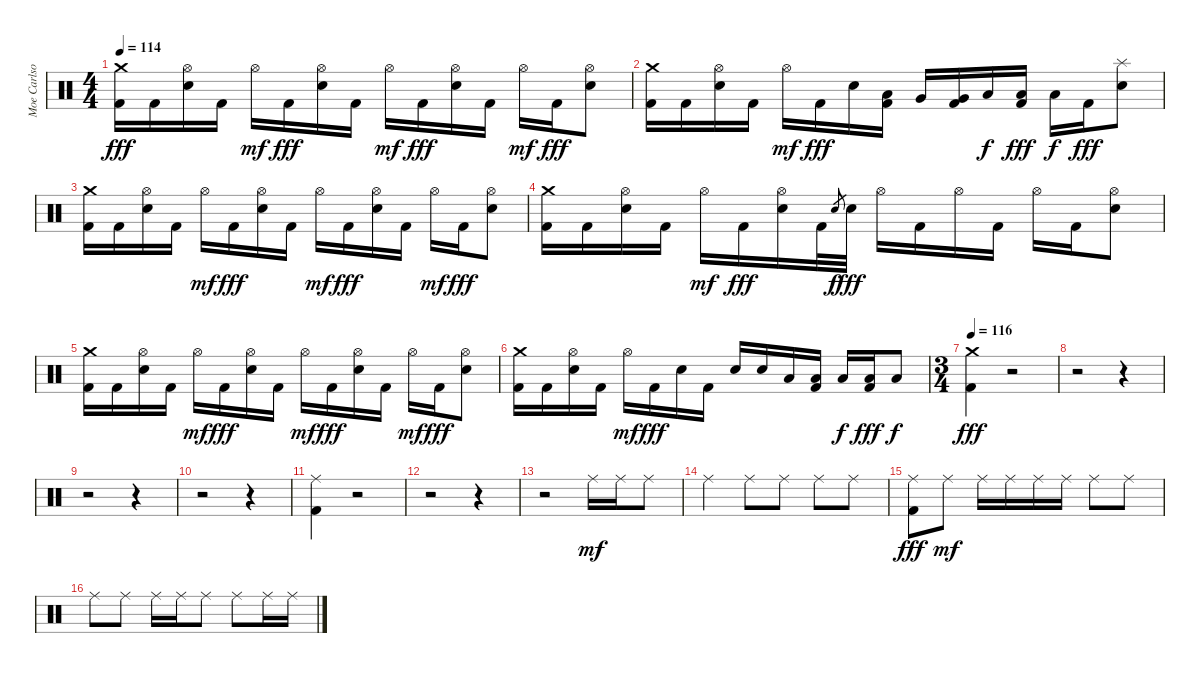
\track ("Moe Carlson" "Moe Carlso") {instrument percussion}
\staff {score}
\articulation defaults
\ts (4 4)
\tempo 114
\clef neutral
\ks c
("Crash medium (hit)" "Kick (hit) 2").16{dy fff} "Kick (hit) 2".16 ("Hi-Hat (open)" "Electric Snare (hit)").16 "Kick (hit) 2".16 "Hi-Hat (open)".16{dy mf} "Kick (hit) 2".16{dy fff} ("Hi-Hat (open)" "Electric Snare (hit)").16 "Kick (hit) 2".16 "Hi-Hat (open)".16{dy mf} "Kick (hit) 2".16{dy fff} ("Hi-Hat (open)" "Electric Snare (hit)").16 "Kick (hit) 2".16 "Hi-Hat (open)".16{dy mf} "Kick (hit) 2".16{dy fff} ("Hi-Hat (open)" "Electric Snare (hit)").8 |
("Crash medium (hit)" "Kick (hit) 2").16 "Kick (hit) 2".16 ("Hi-Hat (open)" "Electric Snare (hit)").16 "Kick (hit) 2".16 "Hi-Hat (open)".16{dy mf} "Kick (hit) 2".16{dy fff} "Electric Snare (hit)".16 ("Low Tom (hit)" "Kick (hit) 2").16 "Very Low Tom (hit)".16 ("Very Low Tom (hit)" "Kick (hit) 2").16 "Low Floor Tom (hit)".16{dy f} ("Low Floor Tom (hit)" "Kick (hit) 2").16{dy fff} "Low Floor Tom (hit)".16{dy f} "Kick (hit) 2".16{dy fff} ("Splash (hit)" "Electric Snare (hit)").8 |
("Crash medium (hit)" "Kick (hit) 2").16 "Kick (hit) 2".16 ("Hi-Hat (open)" "Electric Snare (hit)").16 "Kick (hit) 2".16 "Hi-Hat (open)".16{dy mf} "Kick (hit) 2".16{dy fff} ("Hi-Hat (open)" "Electric Snare (hit)").16 "Kick (hit) 2".16 "Hi-Hat (open)".16{dy mf} "Kick (hit) 2".16{dy fff} ("Hi-Hat (open)" "Electric Snare (hit)").16 "Kick (hit) 2".16 "Hi-Hat (open)".16{dy mf} "Kick (hit) 2".16{dy fff} ("Hi-Hat (open)" "Electric Snare (hit)").8 |
("Crash medium (hit)" "Kick (hit) 2").16 "Kick (hit) 2".16 ("Hi-Hat (open)" "Electric Snare (hit)").16 "Kick (hit) 2".16 "Hi-Hat (open)".16{dy mf} "Kick (hit) 2".16{dy fff} ("Hi-Hat (open)" "Electric Snare (hit)").16 "Kick (hit) 2".32 "Electric Snare (hit)".8{gr dy f} "Electric Snare (hit)".32{dy fff} "Hi-Hat (open)".16 "Kick (hit) 2".16 "Hi-Hat (open)".16 "Kick (hit) 2".16 "Hi-Hat (open)".16 "Kick (hit) 2".16 ("Hi-Hat (open)" "Electric Snare (hit)").8 |
("Crash medium (hit)" "Kick (hit) 2").16 "Kick (hit) 2".16 ("Hi-Hat (open)" "Electric Snare (hit)").16 "Kick (hit) 2".16 "Hi-Hat (open)".16{dy mf} "Kick (hit) 2".16{dy fff} ("Hi-Hat (open)" "Electric Snare (hit)").16 "Kick (hit) 2".16 "Hi-Hat (open)".16{dy mf} "Kick (hit) 2".16{dy fff} ("Hi-Hat (open)" "Electric Snare (hit)").16 "Kick (hit) 2".16 "Hi-Hat (open)".16{dy mf} "Kick (hit) 2".16{dy fff} ("Hi-Hat (open)" "Electric Snare (hit)").8 |
("Crash medium (hit)" "Kick (hit) 2").16 "Kick (hit) 2".16 ("Hi-Hat (open)" "Electric Snare (hit)").16 "Kick (hit) 2".16 "Hi-Hat (open)".16{dy mf} "Kick (hit) 2".16{dy fff} "Electric Snare (hit)".16 "Kick (hit) 2".16 "Electric Snare (hit)".16 "Electric Snare (hit)".16 "Low Tom (hit)".16 ("Low Tom (hit)" "Kick (hit) 2").16 "Low Floor Tom (hit)".16{dy f} ("Low Floor Tom (hit)" "Kick (hit) 2").16{dy fff} "Low Floor Tom (hit)".8{dy f} |
\ts (3 4)
\tempo 116
("Crash medium (hit)" "Kick (hit) 2").4{dy fff} r.2 |
r.2 r.4 |
r.2 r.4 |
r.2 r.4 |
("Ride (middle)" "Kick (hit) 2").4 r.2 |
r.2 r.4 |
r.2 "Ride (middle)".16{dy mf} "Ride (middle)".16 "Ride (middle)".8 |
"Ride (middle)".4 "Ride (middle)".8 "Ride (middle)".8 "Ride (middle)".8 "Ride (middle)".8 |
("Ride (middle)" "Kick (hit) 2").8{dy fff} "Ride (middle)".8{dy mf} "Ride (middle)".16 "Ride (middle)".16 "Ride (middle)".16 "Ride (middle)".16 "Ride (middle)".8 "Ride (middle)".8 |
"Ride (middle)".8 "Ride (middle)".8 "Ride (middle)".16 "Ride (middle)".16 "Ride (middle)".8 "Ride (middle)".8 "Ride (middle)".16 "Ride (middle)".16
